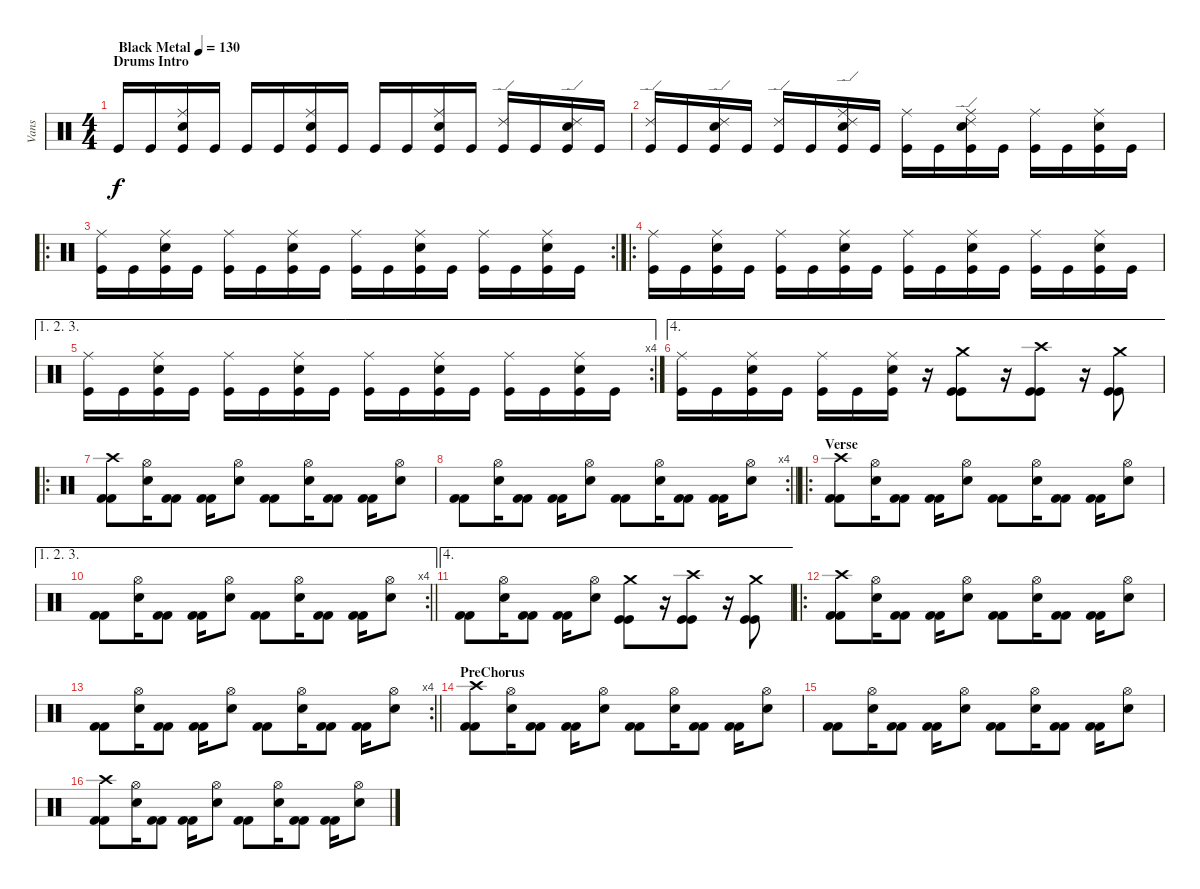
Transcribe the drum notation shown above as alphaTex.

\track ("Vans" "Vans") {instrument percussion}
\staff {score}
\articulation defaults
\ts (4 4)
\section ("" "Drums Intro")
\tempo (130 "Black Metal")
\clef neutral
\ks c "Kick (hit)".16{dy f} "Kick (hit)".16
("Ride (middle)" "Kick (hit)" "Snare (hit) 2").16 "Kick (hit)".16 "Kick (hit)".16 "Kick (hit)".16 ("Ride (middle)" "Kick (hit)" "Snare (hit) 2").16 "Kick (hit)".16 "Kick (hit)".16 "Kick (hit)".16 ("Ride (middle)" "Kick (hit)" "Snare (hit) 2").16 "Kick (hit)".16 ("Ride (edge) 2" "Kick (hit)").16 "Kick (hit)".16 ("Ride (edge) 2" "Kick (hit)" "Snare (hit) 2").16 "Kick (hit)".16 |
("Ride (edge) 2" "Kick (hit)").16 "Kick (hit)".16 ("Ride (edge) 2" "Kick (hit)" "Snare (hit) 2").16 "Kick (hit)".16 ("Ride (edge) 2" "Kick (hit)").16 "Kick (hit)".16 ("Ride (middle)" "Kick (hit)" "Snare (hit) 2" "Ride (edge) 2").16 "Kick (hit)".16 ("Ride (middle)" "Kick (hit)").16 "Kick (hit)".16 ("Ride (middle)" "Kick (hit)" "Snare (hit) 2" "Ride (edge) 2").16 "Kick (hit)".16 ("Ride (middle)" "Kick (hit)").16 "Kick (hit)".16 ("Ride (middle)" "Kick (hit)" "Snare (hit) 2").16 "Kick (hit)".16 |
\ro
\rc 2
("Ride (middle)" "Kick (hit)").16 "Kick (hit)".16 ("Ride (middle)" "Kick (hit)" "Snare (hit) 2").16 "Kick (hit)".16 ("Ride (middle)" "Kick (hit)").16 "Kick (hit)".16 ("Ride (middle)" "Kick (hit)" "Snare (hit) 2").16 "Kick (hit)".16 ("Ride (middle)" "Kick (hit)").16 "Kick (hit)".16 ("Ride (middle)" "Kick (hit)" "Snare (hit) 2").16 "Kick (hit)".16 ("Ride (middle)" "Kick (hit)").16 "Kick (hit)".16 ("Ride (middle)" "Kick (hit)" "Snare (hit) 2").16 "Kick (hit)".16 |
\ro
("Ride (middle)" "Kick (hit)").16 "Kick (hit)".16 ("Ride (middle)" "Kick (hit)" "Snare (hit) 2").16 "Kick (hit)".16 ("Ride (middle)" "Kick (hit)").16 "Kick (hit)".16 ("Ride (middle)" "Kick (hit)" "Snare (hit) 2").16 "Kick (hit)".16 ("Ride (middle)" "Kick (hit)").16 "Kick (hit)".16 ("Ride (middle)" "Kick (hit)" "Snare (hit) 2").16 "Kick (hit)".16 ("Ride (middle)" "Kick (hit)").16 "Kick (hit)".16 ("Ride (middle)" "Kick (hit)" "Snare (hit) 2").16 "Kick (hit)".16 |
\ae (1 2 3)
\rc 4
("Ride (middle)" "Kick (hit)").16 "Kick (hit)".16 ("Ride (middle)" "Kick (hit)" "Snare (hit) 2").16 "Kick (hit)".16 ("Ride (middle)" "Kick (hit)").16 "Kick (hit)".16 ("Ride (middle)" "Kick (hit)" "Snare (hit) 2").16 "Kick (hit)".16 ("Ride (middle)" "Kick (hit)").16 "Kick (hit)".16 ("Ride (middle)" "Kick (hit)" "Snare (hit) 2").16 "Kick (hit)".16 ("Ride (middle)" "Kick (hit)").16 "Kick (hit)".16 ("Ride (middle)" "Kick (hit)" "Snare (hit) 2").16 "Kick (hit)".16 |
\ae 4
("Ride (middle)" "Kick (hit)").16 "Kick (hit)".16 ("Ride (middle)" "Kick (hit)" "Snare (hit) 2").16 "Kick (hit)".16 ("Ride (middle)" "Kick (hit)").16 "Kick (hit)".16 ("Ride (middle)" "Kick (hit)" "Snare (hit) 2").16 r.16 ("Crash medium (hit)" "Kick (hit)" "Kick (hit)").8 r.16 ("Crash high (hit)" "Kick (hit)" "Kick (hit)").8 r.16 ("Crash medium (hit)" "Kick (hit)" "Kick (hit)").8 |
\ro
("Crash high (hit)" "Kick (hit) 2" "Kick (hit) 2").8 ("Hi-Hat (open)" "Snare (hit) 2").16 ("Kick (hit) 2" "Kick (hit) 2").8 ("Kick (hit) 2" "Kick (hit) 2").16 ("Hi-Hat (open)" "Snare (hit) 2").8 ("Kick (hit) 2" "Kick (hit) 2").8 ("Hi-Hat (open)" "Snare (hit) 2").16 ("Kick (hit) 2" "Kick (hit) 2").8 ("Kick (hit) 2" "Kick (hit) 2").16 ("Hi-Hat (open)" "Snare (hit) 2").8 |
\rc 4
\barLineRight lightlight
("Kick (hit) 2" "Kick (hit) 2").8 ("Hi-Hat (open)" "Snare (hit) 2").16 ("Kick (hit) 2" "Kick (hit) 2").8 ("Kick (hit) 2" "Kick (hit) 2").16 ("Hi-Hat (open)" "Snare (hit) 2").8 ("Kick (hit) 2" "Kick (hit) 2").8 ("Hi-Hat (open)" "Snare (hit) 2").16 ("Kick (hit) 2" "Kick (hit) 2").8 ("Kick (hit) 2" "Kick (hit) 2").16 ("Hi-Hat (open)" "Snare (hit) 2").8 |
\ro
\section ("" "Verse")
("Crash high (hit)" "Kick (hit) 2" "Kick (hit) 2").8 ("Hi-Hat (open)" "Snare (hit) 2").16 ("Kick (hit) 2" "Kick (hit) 2").8 ("Kick (hit) 2" "Kick (hit) 2").16 ("Hi-Hat (open)" "Snare (hit) 2").8 ("Kick (hit) 2" "Kick (hit) 2").8 ("Hi-Hat (open)" "Snare (hit) 2").16 ("Kick (hit) 2" "Kick (hit) 2").8 ("Kick (hit) 2" "Kick (hit) 2").16 ("Hi-Hat (open)" "Snare (hit) 2").8 |
\ae (1 2 3)
\rc 4
\barLineRight lightlight
("Kick (hit) 2" "Kick (hit) 2").8 ("Hi-Hat (open)" "Snare (hit) 2").16 ("Kick (hit) 2" "Kick (hit) 2").8 ("Kick (hit) 2" "Kick (hit) 2").16 ("Hi-Hat (open)" "Snare (hit) 2").8 ("Kick (hit) 2" "Kick (hit) 2").8 ("Hi-Hat (open)" "Snare (hit) 2").16 ("Kick (hit) 2" "Kick (hit) 2").8 ("Kick (hit) 2" "Kick (hit) 2").16 ("Hi-Hat (open)" "Snare (hit) 2").8 |
\ae 4
("Kick (hit) 2" "Kick (hit) 2").8 ("Hi-Hat (open)" "Snare (hit) 2").16 ("Kick (hit) 2" "Kick (hit) 2").8 ("Kick (hit) 2" "Kick (hit) 2").16 ("Hi-Hat (open)" "Snare (hit) 2").8 ("Crash medium (hit)" "Kick (hit)" "Kick (hit)").8 r.16 ("Crash high (hit)" "Kick (hit)" "Kick (hit)").8 r.16 ("Crash medium (hit)" "Kick (hit)" "Kick (hit)").8 |
\ro
("Crash high (hit)" "Kick (hit) 2" "Kick (hit) 2").8 ("Hi-Hat (open)" "Snare (hit) 2").16 ("Kick (hit) 2" "Kick (hit) 2").8 ("Kick (hit) 2" "Kick (hit) 2").16 ("Hi-Hat (open)" "Snare (hit) 2").8 ("Kick (hit) 2" "Kick (hit) 2").8 ("Hi-Hat (open)" "Snare (hit) 2").16 ("Kick (hit) 2" "Kick (hit) 2").8 ("Kick (hit) 2" "Kick (hit) 2").16 ("Hi-Hat (open)" "Snare (hit) 2").8 |
\rc 4
\barLineRight lightlight
("Kick (hit) 2" "Kick (hit) 2").8 ("Hi-Hat (open)" "Snare (hit) 2").16 ("Kick (hit) 2" "Kick (hit) 2").8 ("Kick (hit) 2" "Kick (hit) 2").16 ("Hi-Hat (open)" "Snare (hit) 2").8 ("Kick (hit) 2" "Kick (hit) 2").8 ("Hi-Hat (open)" "Snare (hit) 2").16 ("Kick (hit) 2" "Kick (hit) 2").8 ("Kick (hit) 2" "Kick (hit) 2").16 ("Hi-Hat (open)" "Snare (hit) 2").8 |
\section ("" "PreChorus")
("Crash high (hit)" "Kick (hit) 2" "Kick (hit) 2").8 ("Hi-Hat (open)" "Snare (hit) 2").16 ("Kick (hit) 2" "Kick (hit) 2").8 ("Kick (hit) 2" "Kick (hit) 2").16 ("Hi-Hat (open)" "Snare (hit) 2").8 ("Kick (hit) 2" "Kick (hit) 2").8 ("Hi-Hat (open)" "Snare (hit) 2").16 ("Kick (hit) 2" "Kick (hit) 2").8 ("Kick (hit) 2" "Kick (hit) 2").16 ("Hi-Hat (open)" "Snare (hit) 2").8 |
("Kick (hit) 2" "Kick (hit) 2").8 ("Hi-Hat (open)" "Snare (hit) 2").16 ("Kick (hit) 2" "Kick (hit) 2").8 ("Kick (hit) 2" "Kick (hit) 2").16 ("Hi-Hat (open)" "Snare (hit) 2").8 ("Kick (hit) 2" "Kick (hit) 2").8 ("Hi-Hat (open)" "Snare (hit) 2").16 ("Kick (hit) 2" "Kick (hit) 2").8 ("Kick (hit) 2" "Kick (hit) 2").16 ("Hi-Hat (open)" "Snare (hit) 2").8 |
("Crash high (hit)" "Kick (hit) 2" "Kick (hit) 2").8 ("Hi-Hat (open)" "Snare (hit) 2").16 ("Kick (hit) 2" "Kick (hit) 2").8 ("Kick (hit) 2" "Kick (hit) 2").16 ("Hi-Hat (open)" "Snare (hit) 2").8 ("Kick (hit) 2" "Kick (hit) 2").8 ("Hi-Hat (open)" "Snare (hit) 2").16 ("Kick (hit) 2" "Kick (hit) 2").8 ("Kick (hit) 2" "Kick (hit) 2").16 ("Hi-Hat (open)" "Snare (hit) 2").8
